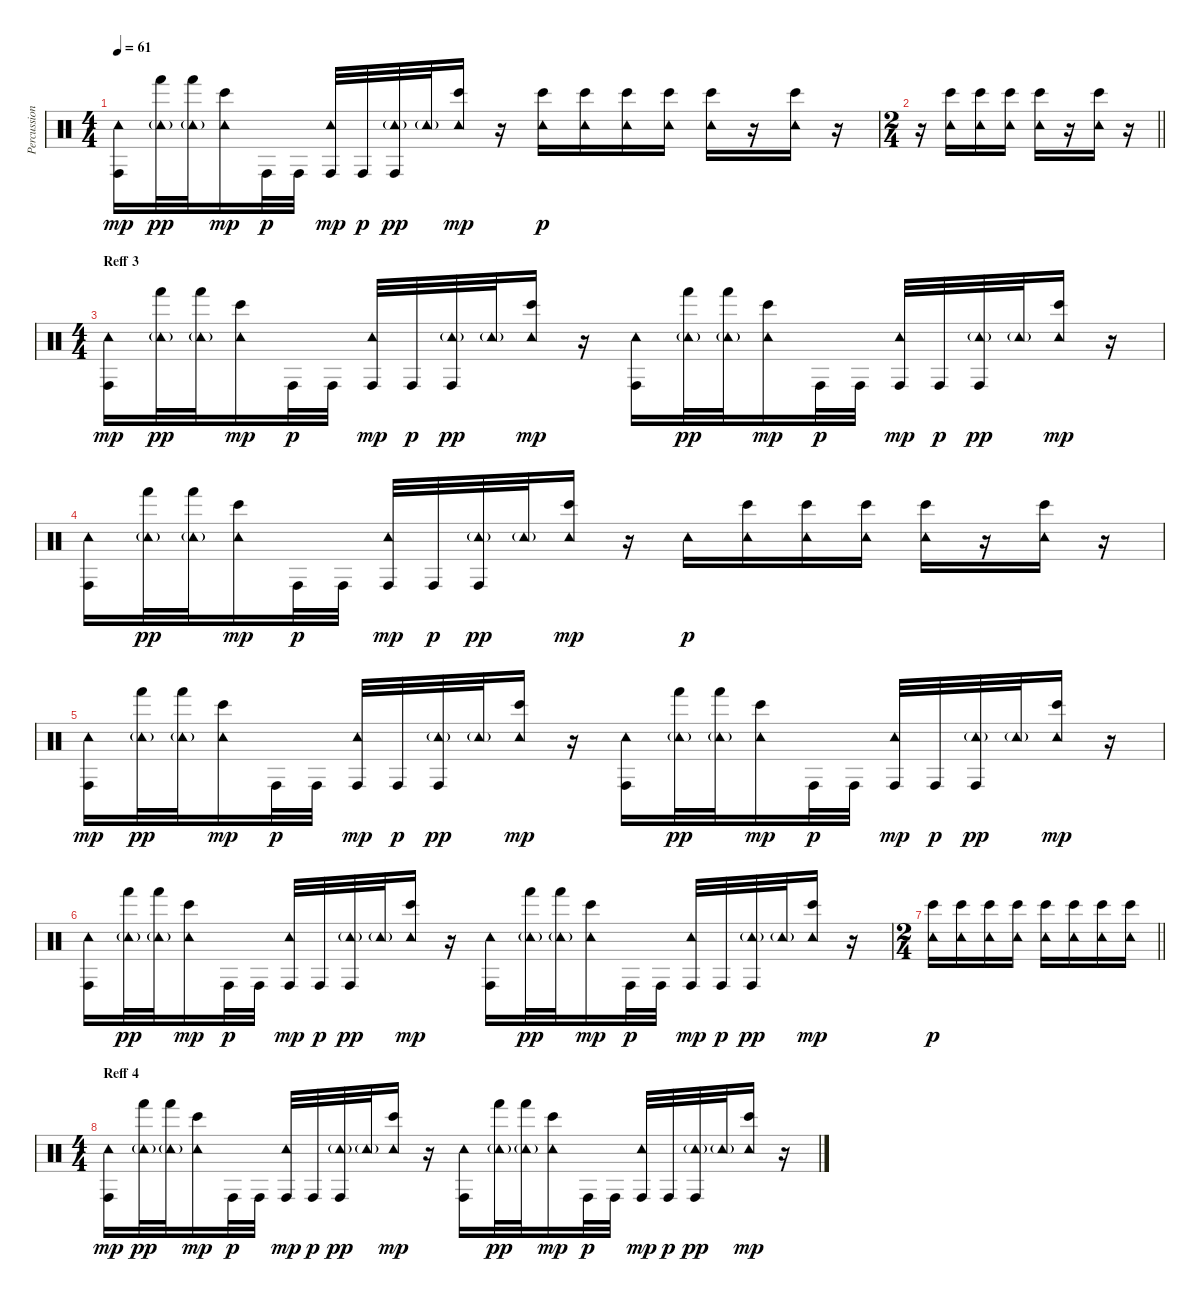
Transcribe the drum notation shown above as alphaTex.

\track ("Percussion 2" "Percussion") {instrument percussion}
\staff {score}
\articulation defaults
\ts (4 4)
\tempo 61
\clef neutral
\ks c
("Conga high (hit)" "Tambourine (hit)").16{dy mp} ("Hand (hit)" "Tambourine (hit)"{g}).32{dy pp} ("Hand (hit)" "Tambourine (hit)"{g}).32 ("Bongo High (hit)" "Tambourine (hit)").16{dy mp} "Conga high (hit)".32{dy p} "Conga high (hit)".32 ("Conga high (hit)" "Tambourine (hit)").32{dy mp} "Conga high (hit)".32{dy p} ("Conga high (hit)" "Tambourine (hit)"{g}).32{dy pp} "Tambourine (hit)"{g}.32 ("Bongo High (hit)" "Tambourine (hit)").16{dy mp} r.16 ("Bongo High (hit)" "Tambourine (hit)").16{dy p} ("Bongo High (hit)" "Tambourine (hit)").16 ("Bongo High (hit)" "Tambourine (hit)").16 ("Bongo High (hit)" "Tambourine (hit)").16 ("Bongo High (hit)" "Tambourine (hit)").16 r.16 ("Bongo High (hit)" "Tambourine (hit)").16 r.16 |
\ts (2 4)
\barLineRight lightlight
r.16 ("Bongo High (hit)" "Tambourine (hit)").16 ("Bongo High (hit)" "Tambourine (hit)").16 ("Bongo High (hit)" "Tambourine (hit)").16 ("Bongo High (hit)" "Tambourine (hit)").16 r.16 ("Bongo High (hit)" "Tambourine (hit)").16 r.16 |
\ts (4 4)
\section ("" "Reff 3")
("Conga high (hit)" "Tambourine (hit)").16{dy mp} ("Hand (hit)" "Tambourine (hit)"{g}).32{dy pp} ("Hand (hit)" "Tambourine (hit)"{g}).32 ("Bongo High (hit)" "Tambourine (hit)").16{dy mp} "Conga high (hit)".32{dy p} "Conga high (hit)".32 ("Conga high (hit)" "Tambourine (hit)").32{dy mp} "Conga high (hit)".32{dy p} ("Conga high (hit)" "Tambourine (hit)"{g}).32{dy pp} "Tambourine (hit)"{g}.32 ("Bongo High (hit)" "Tambourine (hit)").16{dy mp} r.16 ("Conga high (hit)" "Tambourine (hit)").16 ("Hand (hit)" "Tambourine (hit)"{g}).32{dy pp} ("Hand (hit)" "Tambourine (hit)"{g}).32 ("Bongo High (hit)" "Tambourine (hit)").16{dy mp} "Conga high (hit)".32{dy p} "Conga high (hit)".32 ("Conga high (hit)" "Tambourine (hit)").32{dy mp} "Conga high (hit)".32{dy p} ("Conga high (hit)" "Tambourine (hit)"{g}).32{dy pp} "Tambourine (hit)"{g}.32 ("Bongo High (hit)" "Tambourine (hit)").16{dy mp} r.16 |
("Conga high (hit)" "Tambourine (hit)").16 ("Hand (hit)" "Tambourine (hit)"{g}).32{dy pp} ("Hand (hit)" "Tambourine (hit)"{g}).32 ("Bongo High (hit)" "Tambourine (hit)").16{dy mp} "Conga high (hit)".32{dy p} "Conga high (hit)".32 ("Conga high (hit)" "Tambourine (hit)").32{dy mp} "Conga high (hit)".32{dy p} ("Conga high (hit)" "Tambourine (hit)"{g}).32{dy pp} "Tambourine (hit)"{g}.32 ("Bongo High (hit)" "Tambourine (hit)").16{dy mp} r.16 "Tambourine (hit)".16{dy p} ("Bongo High (hit)" "Tambourine (hit)").16 ("Bongo High (hit)" "Tambourine (hit)").16 ("Bongo High (hit)" "Tambourine (hit)").16 ("Bongo High (hit)" "Tambourine (hit)").16 r.16 ("Bongo High (hit)" "Tambourine (hit)").16 r.16 |
("Conga high (hit)" "Tambourine (hit)").16{dy mp} ("Hand (hit)" "Tambourine (hit)"{g}).32{dy pp} ("Hand (hit)" "Tambourine (hit)"{g}).32 ("Bongo High (hit)" "Tambourine (hit)").16{dy mp} "Conga high (hit)".32{dy p} "Conga high (hit)".32 ("Conga high (hit)" "Tambourine (hit)").32{dy mp} "Conga high (hit)".32{dy p} ("Conga high (hit)" "Tambourine (hit)"{g}).32{dy pp} "Tambourine (hit)"{g}.32 ("Bongo High (hit)" "Tambourine (hit)").16{dy mp} r.16 ("Conga high (hit)" "Tambourine (hit)").16 ("Hand (hit)" "Tambourine (hit)"{g}).32{dy pp} ("Hand (hit)" "Tambourine (hit)"{g}).32 ("Bongo High (hit)" "Tambourine (hit)").16{dy mp} "Conga high (hit)".32{dy p} "Conga high (hit)".32 ("Conga high (hit)" "Tambourine (hit)").32{dy mp} "Conga high (hit)".32{dy p} ("Conga high (hit)" "Tambourine (hit)"{g}).32{dy pp} "Tambourine (hit)"{g}.32 ("Bongo High (hit)" "Tambourine (hit)").16{dy mp} r.16 |
("Conga high (hit)" "Tambourine (hit)").16 ("Hand (hit)" "Tambourine (hit)"{g}).32{dy pp} ("Hand (hit)" "Tambourine (hit)"{g}).32 ("Bongo High (hit)" "Tambourine (hit)").16{dy mp} "Conga high (hit)".32{dy p} "Conga high (hit)".32 ("Conga high (hit)" "Tambourine (hit)").32{dy mp} "Conga high (hit)".32{dy p} ("Conga high (hit)" "Tambourine (hit)"{g}).32{dy pp} "Tambourine (hit)"{g}.32 ("Bongo High (hit)" "Tambourine (hit)").16{dy mp} r.16 ("Conga high (hit)" "Tambourine (hit)").16 ("Hand (hit)" "Tambourine (hit)"{g}).32{dy pp} ("Hand (hit)" "Tambourine (hit)"{g}).32 ("Bongo High (hit)" "Tambourine (hit)").16{dy mp} "Conga high (hit)".32{dy p} "Conga high (hit)".32 ("Conga high (hit)" "Tambourine (hit)").32{dy mp} "Conga high (hit)".32{dy p} ("Conga high (hit)" "Tambourine (hit)"{g}).32{dy pp} "Tambourine (hit)"{g}.32 ("Bongo High (hit)" "Tambourine (hit)").16{dy mp} r.16 |
\ts (2 4)
\barLineRight lightlight
("Bongo High (hit)" "Tambourine (hit)").16{dy p} ("Bongo High (hit)" "Tambourine (hit)").16 ("Bongo High (hit)" "Tambourine (hit)").16 ("Bongo High (hit)" "Tambourine (hit)").16 ("Bongo High (hit)" "Tambourine (hit)").16 ("Bongo High (hit)" "Tambourine (hit)").16 ("Bongo High (hit)" "Tambourine (hit)").16 ("Bongo High (hit)" "Tambourine (hit)").16 |
\ts (4 4)
\section ("" "Reff 4")
("Conga high (hit)" "Tambourine (hit)").16{dy mp} ("Hand (hit)" "Tambourine (hit)"{g}).32{dy pp} ("Hand (hit)" "Tambourine (hit)"{g}).32 ("Bongo High (hit)" "Tambourine (hit)").16{dy mp} "Conga high (hit)".32{dy p} "Conga high (hit)".32 ("Conga high (hit)" "Tambourine (hit)").32{dy mp} "Conga high (hit)".32{dy p} ("Conga high (hit)" "Tambourine (hit)"{g}).32{dy pp} "Tambourine (hit)"{g}.32 ("Bongo High (hit)" "Tambourine (hit)").16{dy mp} r.16 ("Conga high (hit)" "Tambourine (hit)").16 ("Hand (hit)" "Tambourine (hit)"{g}).32{dy pp} ("Hand (hit)" "Tambourine (hit)"{g}).32 ("Bongo High (hit)" "Tambourine (hit)").16{dy mp} "Conga high (hit)".32{dy p} "Conga high (hit)".32 ("Conga high (hit)" "Tambourine (hit)").32{dy mp} "Conga high (hit)".32{dy p} ("Conga high (hit)" "Tambourine (hit)"{g}).32{dy pp} "Tambourine (hit)"{g}.32 ("Bongo High (hit)" "Tambourine (hit)").16{dy mp} r.16
